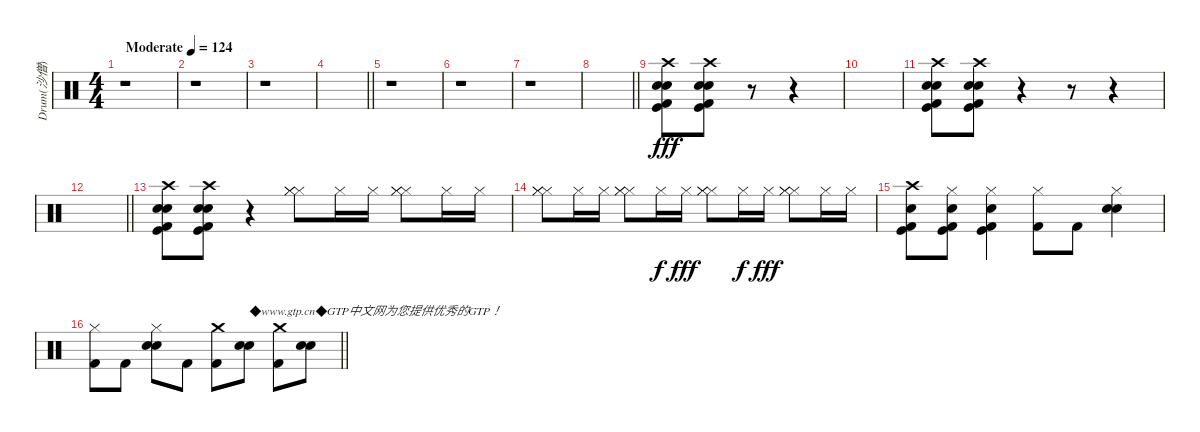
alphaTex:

\track ("Drum(沙僧)" "Drum(沙僧)") {instrument percussion}
\staff {score}
\articulation defaults
\ts (4 4)
\tempo (124 "Moderate")
\clef neutral
\ks c
r.1{dy fff} |
r.1 |
r.1 |
\barLineRight lightlight
|
r.1 |
r.1 |
r.1 |
\barLineRight lightlight
|
("Crash high (hit)" "Kick (hit)" "Kick (hit) 2" "Electric Snare (hit)" "Snare (hit) 2").8 ("Crash high (hit)" "Kick (hit)" "Kick (hit) 2" "Electric Snare (hit)" "Snare (hit) 2").8 r.8 r.4 |
|
("Crash high (hit)" "Kick (hit)" "Kick (hit) 2" "Electric Snare (hit)" "Snare (hit) 2").8 ("Crash high (hit)" "Kick (hit)" "Kick (hit) 2" "Electric Snare (hit)" "Snare (hit) 2").8 r.4 r.8 r.4 |
\barLineRight lightlight
|
("Crash high (hit)" "Kick (hit)" "Kick (hit) 2" "Electric Snare (hit)" "Snare (hit) 2").8 ("Crash high (hit)" "Kick (hit)" "Kick (hit) 2" "Electric Snare (hit)" "Snare (hit) 2").8 r.4 ("Hi-Hat (closed)" "Hi-Hat (closed)" "Hi-Hat (closed)").8 "Hi-Hat (closed)".16 "Hi-Hat (closed)".16 ("Hi-Hat (closed)" "Hi-Hat (closed)" "Hi-Hat (closed)").8 "Hi-Hat (closed)".16 "Hi-Hat (closed)".16 |
("Hi-Hat (closed)" "Hi-Hat (closed)" "Hi-Hat (closed)").8 "Hi-Hat (closed)".16 "Hi-Hat (closed)".16 ("Hi-Hat (closed)" "Hi-Hat (closed)" "Hi-Hat (closed)").8 "Hi-Hat (closed)".16{dy f} "Hi-Hat (closed)".16{dy fff} ("Hi-Hat (closed)" "Hi-Hat (closed)" "Hi-Hat (closed)").8 "Hi-Hat (closed)".16{dy f} "Hi-Hat (closed)".16{dy fff} ("Hi-Hat (closed)" "Hi-Hat (closed)" "Hi-Hat (closed)").8 "Hi-Hat (closed)".16 "Hi-Hat (closed)".16 |
("Crash high (hit)" "Kick (hit)" "Kick (hit) 2" "Electric Snare (hit)").8 ("Hi-Hat (closed)" "Kick (hit)" "Kick (hit) 2" "Electric Snare (hit)").8 ("Hi-Hat (closed)" "Kick (hit)" "Kick (hit) 2" "Electric Snare (hit)").4 ("Hi-Hat (closed)" "Kick (hit) 2").8 "Kick (hit) 2".8 ("Hi-Hat (closed)" "Electric Snare (hit)" "Snare (hit) 2").4 |
\barLineRight lightlight
("Hi-Hat (closed)" "Kick (hit) 2").8 "Kick (hit) 2".8 ("Hi-Hat (closed)" "Electric Snare (hit)" "Snare (hit) 2").8 "Kick (hit) 2".8 ("Crash medium (hit)" "Kick (hit) 2").8 ("Electric Snare (hit)" "Snare (hit) 2").8{txt "◆www.gtp.cn◆GTP中文网为您提供优秀的GTP！"} ("Crash medium (hit)" "Kick (hit) 2").8 ("Electric Snare (hit)" "Snare (hit) 2").8
